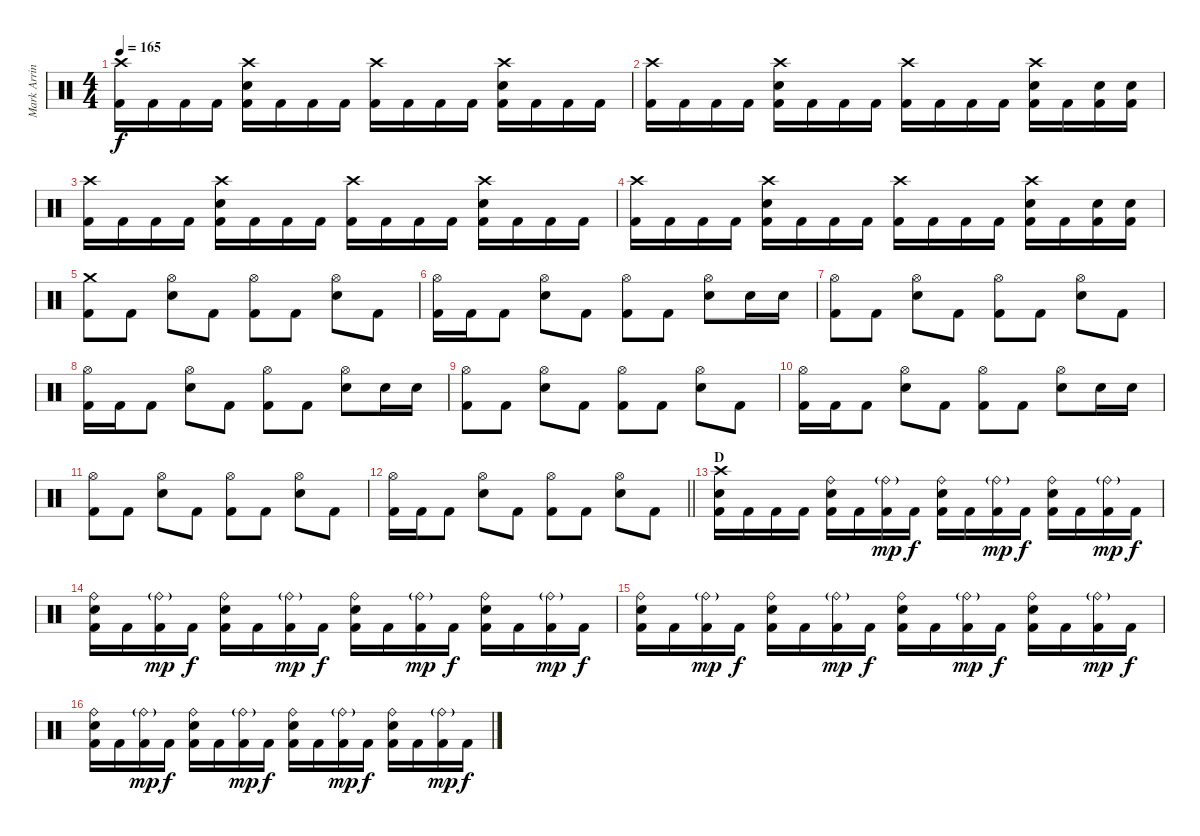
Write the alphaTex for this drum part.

\track ("Mark Arrington Drums" "Mark Arrin") {instrument percussion}
\staff {score}
\articulation defaults
\ts (4 4)
\tempo 165
\clef neutral
\ks c
("Crash high (hit)" "Kick (hit) 2").16{dy f} "Kick (hit) 2".16 "Kick (hit) 2".16 "Kick (hit) 2".16 ("Crash high (hit)" "Electric Snare (hit)" "Kick (hit) 2").16 "Kick (hit) 2".16 "Kick (hit) 2".16 "Kick (hit) 2".16 ("Crash high (hit)" "Kick (hit) 2").16 "Kick (hit) 2".16 "Kick (hit) 2".16 "Kick (hit) 2".16 ("Crash high (hit)" "Electric Snare (hit)" "Kick (hit) 2").16 "Kick (hit) 2".16 "Kick (hit) 2".16 "Kick (hit) 2".16 |
("Crash high (hit)" "Kick (hit) 2").16 "Kick (hit) 2".16 "Kick (hit) 2".16 "Kick (hit) 2".16 ("Crash high (hit)" "Electric Snare (hit)" "Kick (hit) 2").16 "Kick (hit) 2".16 "Kick (hit) 2".16 "Kick (hit) 2".16 ("Crash high (hit)" "Kick (hit) 2").16 "Kick (hit) 2".16 "Kick (hit) 2".16 "Kick (hit) 2".16 ("Crash high (hit)" "Electric Snare (hit)" "Kick (hit) 2").16 "Kick (hit) 2".16 ("Electric Snare (hit)" "Kick (hit) 2").16 ("Electric Snare (hit)" "Kick (hit) 2").16 |
("Crash high (hit)" "Kick (hit) 2").16 "Kick (hit) 2".16 "Kick (hit) 2".16 "Kick (hit) 2".16 ("Crash high (hit)" "Electric Snare (hit)" "Kick (hit) 2").16 "Kick (hit) 2".16 "Kick (hit) 2".16 "Kick (hit) 2".16 ("Crash high (hit)" "Kick (hit) 2").16 "Kick (hit) 2".16 "Kick (hit) 2".16 "Kick (hit) 2".16 ("Crash high (hit)" "Electric Snare (hit)" "Kick (hit) 2").16 "Kick (hit) 2".16 "Kick (hit) 2".16 "Kick (hit) 2".16 |
("Crash high (hit)" "Kick (hit) 2").16 "Kick (hit) 2".16 "Kick (hit) 2".16 "Kick (hit) 2".16 ("Crash high (hit)" "Electric Snare (hit)" "Kick (hit) 2").16 "Kick (hit) 2".16 "Kick (hit) 2".16 "Kick (hit) 2".16 ("Crash high (hit)" "Kick (hit) 2").16 "Kick (hit) 2".16 "Kick (hit) 2".16 "Kick (hit) 2".16 ("Crash high (hit)" "Electric Snare (hit)" "Kick (hit) 2").16 "Kick (hit) 2".16 ("Electric Snare (hit)" "Kick (hit) 2").16 ("Electric Snare (hit)" "Kick (hit) 2").16 |
("Crash medium (hit)" "Kick (hit) 2").8 "Kick (hit) 2".8 ("Hi-Hat (open)" "Electric Snare (hit)").8 "Kick (hit) 2".8 ("Hi-Hat (open)" "Kick (hit) 2").8 "Kick (hit) 2".8 ("Hi-Hat (open)" "Electric Snare (hit)").8 "Kick (hit) 2".8 |
("Hi-Hat (open)" "Kick (hit) 2").16 "Kick (hit) 2".16 "Kick (hit) 2".8 ("Hi-Hat (open)" "Electric Snare (hit)").8 "Kick (hit) 2".8 ("Hi-Hat (open)" "Kick (hit) 2").8 "Kick (hit) 2".8 ("Hi-Hat (open)" "Electric Snare (hit)").8 "Electric Snare (hit)".16 "Electric Snare (hit)".16 |
("Hi-Hat (open)" "Kick (hit) 2").8 "Kick (hit) 2".8 ("Hi-Hat (open)" "Electric Snare (hit)").8 "Kick (hit) 2".8 ("Hi-Hat (open)" "Kick (hit) 2").8 "Kick (hit) 2".8 ("Hi-Hat (open)" "Electric Snare (hit)").8 "Kick (hit) 2".8 |
("Hi-Hat (open)" "Kick (hit) 2").16 "Kick (hit) 2".16 "Kick (hit) 2".8 ("Hi-Hat (open)" "Electric Snare (hit)").8 "Kick (hit) 2".8 ("Hi-Hat (open)" "Kick (hit) 2").8 "Kick (hit) 2".8 ("Hi-Hat (open)" "Electric Snare (hit)").8 "Electric Snare (hit)".16 "Electric Snare (hit)".16 |
("Hi-Hat (open)" "Kick (hit) 2").8 "Kick (hit) 2".8 ("Hi-Hat (open)" "Electric Snare (hit)").8 "Kick (hit) 2".8 ("Hi-Hat (open)" "Kick (hit) 2").8 "Kick (hit) 2".8 ("Hi-Hat (open)" "Electric Snare (hit)").8 "Kick (hit) 2".8 |
("Hi-Hat (open)" "Kick (hit) 2").16 "Kick (hit) 2".16 "Kick (hit) 2".8 ("Hi-Hat (open)" "Electric Snare (hit)").8 "Kick (hit) 2".8 ("Hi-Hat (open)" "Kick (hit) 2").8 "Kick (hit) 2".8 ("Hi-Hat (open)" "Electric Snare (hit)").8 "Electric Snare (hit)".16 "Electric Snare (hit)".16 |
("Hi-Hat (open)" "Kick (hit) 2").8 "Kick (hit) 2".8 ("Hi-Hat (open)" "Electric Snare (hit)").8 "Kick (hit) 2".8 ("Hi-Hat (open)" "Kick (hit) 2").8 "Kick (hit) 2".8 ("Hi-Hat (open)" "Electric Snare (hit)").8 "Kick (hit) 2".8 |
\barLineRight lightlight
("Hi-Hat (open)" "Kick (hit) 2").16 "Kick (hit) 2".16 "Kick (hit) 2".8 ("Hi-Hat (open)" "Electric Snare (hit)").8 "Kick (hit) 2".8 ("Hi-Hat (open)" "Kick (hit) 2").8 "Kick (hit) 2".8 ("Hi-Hat (open)" "Electric Snare (hit)").8 "Kick (hit) 2".8 |
\section ("" "D")
("Crash high (hit)" "Electric Snare (hit)" "Kick (hit) 2").16 "Kick (hit) 2".16 "Kick (hit) 2".16 "Kick (hit) 2".16 ("Ride (bell)" "Electric Snare (hit)" "Kick (hit) 2").16 "Kick (hit) 2".16 ("Ride (bell)"{g} "Kick (hit) 2").16{dy mp} "Kick (hit) 2".16{dy f} ("Ride (bell)" "Electric Snare (hit)" "Kick (hit) 2").16 "Kick (hit) 2".16 ("Ride (bell)"{g} "Kick (hit) 2").16{dy mp} "Kick (hit) 2".16{dy f} ("Ride (bell)" "Electric Snare (hit)" "Kick (hit) 2").16 "Kick (hit) 2".16 ("Ride (bell)"{g} "Kick (hit) 2").16{dy mp} "Kick (hit) 2".16{dy f} |
("Ride (bell)" "Electric Snare (hit)" "Kick (hit) 2").16 "Kick (hit) 2".16 ("Ride (bell)"{g} "Kick (hit) 2").16{dy mp} "Kick (hit) 2".16{dy f} ("Ride (bell)" "Electric Snare (hit)" "Kick (hit) 2").16 "Kick (hit) 2".16 ("Ride (bell)"{g} "Kick (hit) 2").16{dy mp} "Kick (hit) 2".16{dy f} ("Ride (bell)" "Electric Snare (hit)" "Kick (hit) 2").16 "Kick (hit) 2".16 ("Ride (bell)"{g} "Kick (hit) 2").16{dy mp} "Kick (hit) 2".16{dy f} ("Ride (bell)" "Electric Snare (hit)" "Kick (hit) 2").16 "Kick (hit) 2".16 ("Ride (bell)"{g} "Kick (hit) 2").16{dy mp} "Kick (hit) 2".16{dy f} |
("Ride (bell)" "Electric Snare (hit)" "Kick (hit) 2").16 "Kick (hit) 2".16 ("Ride (bell)"{g} "Kick (hit) 2").16{dy mp} "Kick (hit) 2".16{dy f} ("Ride (bell)" "Electric Snare (hit)" "Kick (hit) 2").16 "Kick (hit) 2".16 ("Ride (bell)"{g} "Kick (hit) 2").16{dy mp} "Kick (hit) 2".16{dy f} ("Ride (bell)" "Electric Snare (hit)" "Kick (hit) 2").16 "Kick (hit) 2".16 ("Ride (bell)"{g} "Kick (hit) 2").16{dy mp} "Kick (hit) 2".16{dy f} ("Ride (bell)" "Electric Snare (hit)" "Kick (hit) 2").16 "Kick (hit) 2".16 ("Ride (bell)"{g} "Kick (hit) 2").16{dy mp} "Kick (hit) 2".16{dy f} |
("Ride (bell)" "Electric Snare (hit)" "Kick (hit) 2").16 "Kick (hit) 2".16 ("Ride (bell)"{g} "Kick (hit) 2").16{dy mp} "Kick (hit) 2".16{dy f} ("Ride (bell)" "Electric Snare (hit)" "Kick (hit) 2").16 "Kick (hit) 2".16 ("Ride (bell)"{g} "Kick (hit) 2").16{dy mp} "Kick (hit) 2".16{dy f} ("Ride (bell)" "Electric Snare (hit)" "Kick (hit) 2").16 "Kick (hit) 2".16 ("Ride (bell)"{g} "Kick (hit) 2").16{dy mp} "Kick (hit) 2".16{dy f} ("Ride (bell)" "Electric Snare (hit)" "Kick (hit) 2").16 "Kick (hit) 2".16 ("Ride (bell)"{g} "Kick (hit) 2").16{dy mp} "Kick (hit) 2".16{dy f}
